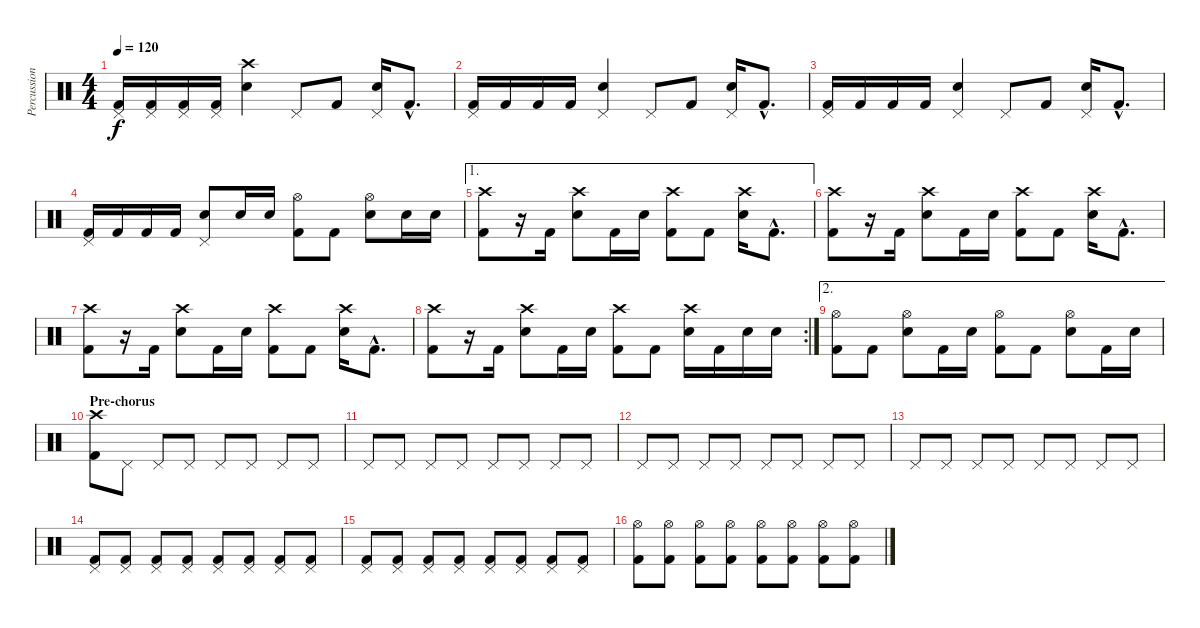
\track ("Percussion" "Percussion") {instrument percussion}
\staff {score}
\articulation defaults
\ts (4 4)
\tempo 120
\clef neutral
\ks c
("Pedal Hi-Hat (hit)" "Kick (hit) 2").16{dy f} ("Pedal Hi-Hat (hit)" "Kick (hit) 2").16 ("Pedal Hi-Hat (hit)" "Kick (hit) 2").16 ("Pedal Hi-Hat (hit)" "Kick (hit) 2").16 ("Crash high (hit)" "Snare (hit) 2").4 "Pedal Hi-Hat (hit)".8 "Kick (hit) 2".8 ("Pedal Hi-Hat (hit)" "Snare (hit) 2").16 "Kick (hit) 2"{hac}.8{d} |
("Pedal Hi-Hat (hit)" "Kick (hit) 2").16 "Kick (hit) 2".16 "Kick (hit) 2".16 "Kick (hit) 2".16 ("Pedal Hi-Hat (hit)" "Snare (hit) 2").4 "Pedal Hi-Hat (hit)".8 "Kick (hit) 2".8 ("Pedal Hi-Hat (hit)" "Snare (hit) 2").16 "Kick (hit) 2"{hac}.8{d} |
("Pedal Hi-Hat (hit)" "Kick (hit) 2").16 "Kick (hit) 2".16 "Kick (hit) 2".16 "Kick (hit) 2".16 ("Pedal Hi-Hat (hit)" "Snare (hit) 2").4 "Pedal Hi-Hat (hit)".8 "Kick (hit) 2".8 ("Pedal Hi-Hat (hit)" "Snare (hit) 2").16 "Kick (hit) 2"{hac}.8{d} |
("Pedal Hi-Hat (hit)" "Kick (hit) 2").16 "Kick (hit) 2".16 "Kick (hit) 2".16 "Kick (hit) 2".16 ("Pedal Hi-Hat (hit)" "Snare (hit) 2").8 "Snare (hit) 2".16 "Snare (hit) 2".16 ("Hi-Hat (open)" "Kick (hit) 2").8 "Kick (hit) 2".8 ("Hi-Hat (open)" "Snare (hit) 2").8 "Snare (hit) 2".16 "Snare (hit) 2".16 |
\ae 1
("Crash high (hit)" "Kick (hit) 2").8 r.16 "Kick (hit) 2".16 ("Crash high (hit)" "Snare (hit) 2").8 "Kick (hit) 2".16 "Snare (hit) 2".16 ("Crash high (hit)" "Kick (hit) 2").8 "Kick (hit) 2".8 ("Crash high (hit)" "Snare (hit) 2").16 "Kick (hit) 2"{hac}.8{d} |
("Crash high (hit)" "Kick (hit) 2").8 r.16 "Kick (hit) 2".16 ("Crash high (hit)" "Snare (hit) 2").8 "Kick (hit) 2".16 "Snare (hit) 2".16 ("Crash high (hit)" "Kick (hit) 2").8 "Kick (hit) 2".8 ("Crash high (hit)" "Snare (hit) 2").16 "Kick (hit) 2"{hac}.8{d} |
("Crash high (hit)" "Kick (hit) 2").8 r.16 "Kick (hit) 2".16 ("Crash high (hit)" "Snare (hit) 2").8 "Kick (hit) 2".16 "Snare (hit) 2".16 ("Crash high (hit)" "Kick (hit) 2").8 "Kick (hit) 2".8 ("Crash high (hit)" "Snare (hit) 2").16 "Kick (hit) 2"{hac}.8{d} |
\rc 2
("Crash high (hit)" "Kick (hit) 2").8 r.16 "Kick (hit) 2".16 ("Crash high (hit)" "Snare (hit) 2").8 "Kick (hit) 2".16 "Snare (hit) 2".16 ("Crash high (hit)" "Kick (hit) 2").8 "Kick (hit) 2".8 ("Crash high (hit)" "Snare (hit) 2").16 "Kick (hit) 2".16 "Snare (hit) 2".16 "Snare (hit) 2".16 |
\ae 2
("Hi-Hat (open)" "Kick (hit) 2").8 "Kick (hit) 2".8 ("Hi-Hat (open)" "Snare (hit) 2").8 "Kick (hit) 2".16 "Snare (hit) 2".16 ("Hi-Hat (open)" "Kick (hit) 2").8 "Kick (hit) 2".8 ("Hi-Hat (open)" "Snare (hit) 2").8 "Kick (hit) 2".16 "Snare (hit) 2".16 |
\section ("" "Pre-chorus")
("Crash high (hit)" "Kick (hit) 2").8 "Pedal Hi-Hat (hit)".8 "Pedal Hi-Hat (hit)".8 "Pedal Hi-Hat (hit)".8 "Pedal Hi-Hat (hit)".8 "Pedal Hi-Hat (hit)".8 "Pedal Hi-Hat (hit)".8 "Pedal Hi-Hat (hit)".8 |
"Pedal Hi-Hat (hit)".8 "Pedal Hi-Hat (hit)".8 "Pedal Hi-Hat (hit)".8 "Pedal Hi-Hat (hit)".8 "Pedal Hi-Hat (hit)".8 "Pedal Hi-Hat (hit)".8 "Pedal Hi-Hat (hit)".8 "Pedal Hi-Hat (hit)".8 |
"Pedal Hi-Hat (hit)".8 "Pedal Hi-Hat (hit)".8 "Pedal Hi-Hat (hit)".8 "Pedal Hi-Hat (hit)".8 "Pedal Hi-Hat (hit)".8 "Pedal Hi-Hat (hit)".8 "Pedal Hi-Hat (hit)".8 "Pedal Hi-Hat (hit)".8 |
"Pedal Hi-Hat (hit)".8 "Pedal Hi-Hat (hit)".8 "Pedal Hi-Hat (hit)".8 "Pedal Hi-Hat (hit)".8 "Pedal Hi-Hat (hit)".8 "Pedal Hi-Hat (hit)".8 "Pedal Hi-Hat (hit)".8 "Pedal Hi-Hat (hit)".8 |
("Pedal Hi-Hat (hit)" "Kick (hit) 2").8 ("Pedal Hi-Hat (hit)" "Kick (hit) 2").8 ("Pedal Hi-Hat (hit)" "Kick (hit) 2").8 ("Pedal Hi-Hat (hit)" "Kick (hit) 2").8 ("Pedal Hi-Hat (hit)" "Kick (hit) 2").8 ("Pedal Hi-Hat (hit)" "Kick (hit) 2").8 ("Pedal Hi-Hat (hit)" "Kick (hit) 2").8 ("Pedal Hi-Hat (hit)" "Kick (hit) 2").8 |
("Pedal Hi-Hat (hit)" "Kick (hit) 2").8 ("Pedal Hi-Hat (hit)" "Kick (hit) 2").8 ("Pedal Hi-Hat (hit)" "Kick (hit) 2").8 ("Pedal Hi-Hat (hit)" "Kick (hit) 2").8 ("Pedal Hi-Hat (hit)" "Kick (hit) 2").8 ("Pedal Hi-Hat (hit)" "Kick (hit) 2").8 ("Pedal Hi-Hat (hit)" "Kick (hit) 2").8 ("Pedal Hi-Hat (hit)" "Kick (hit) 2").8 |
("Hi-Hat (open)" "Kick (hit) 2").8 ("Hi-Hat (open)" "Kick (hit) 2").8 ("Hi-Hat (open)" "Kick (hit) 2").8 ("Hi-Hat (open)" "Kick (hit) 2").8 ("Hi-Hat (open)" "Kick (hit) 2").8 ("Hi-Hat (open)" "Kick (hit) 2").8 ("Hi-Hat (open)" "Kick (hit) 2").8 ("Hi-Hat (open)" "Kick (hit) 2").8
